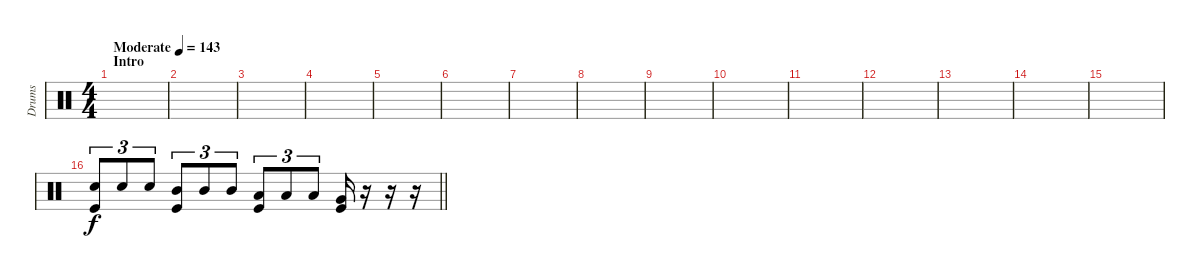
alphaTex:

\track ("Drums" "Drums") {instrument percussion}
\staff {score}
\articulation defaults
\ts (4 4)
\section ("" "Intro")
\tempo (143 "Moderate")
\clef neutral
\ks c
|
|
|
|
|
|
|
|
|
|
|
|
|
|
|
\barLineRight lightlight
("Electric Snare (hit)" "Kick (hit)").8{tu (3 2)} "Electric Snare (hit)".8{tu (3 2)} "Electric Snare (hit)".8{tu (3 2)} ("Mid Tom (hit)" "Kick (hit)").8{tu (3 2)} "Mid Tom (hit)".8{tu (3 2)} "Mid Tom (hit)".8{tu (3 2)} ("Low Tom (hit)" "Kick (hit)").8{tu (3 2)} "Low Tom (hit)".8{tu (3 2)} "Low Tom (hit)".8{tu (3 2)} ("Very Low Tom (hit)" "Kick (hit)").16 r.16 r.16 r.16
